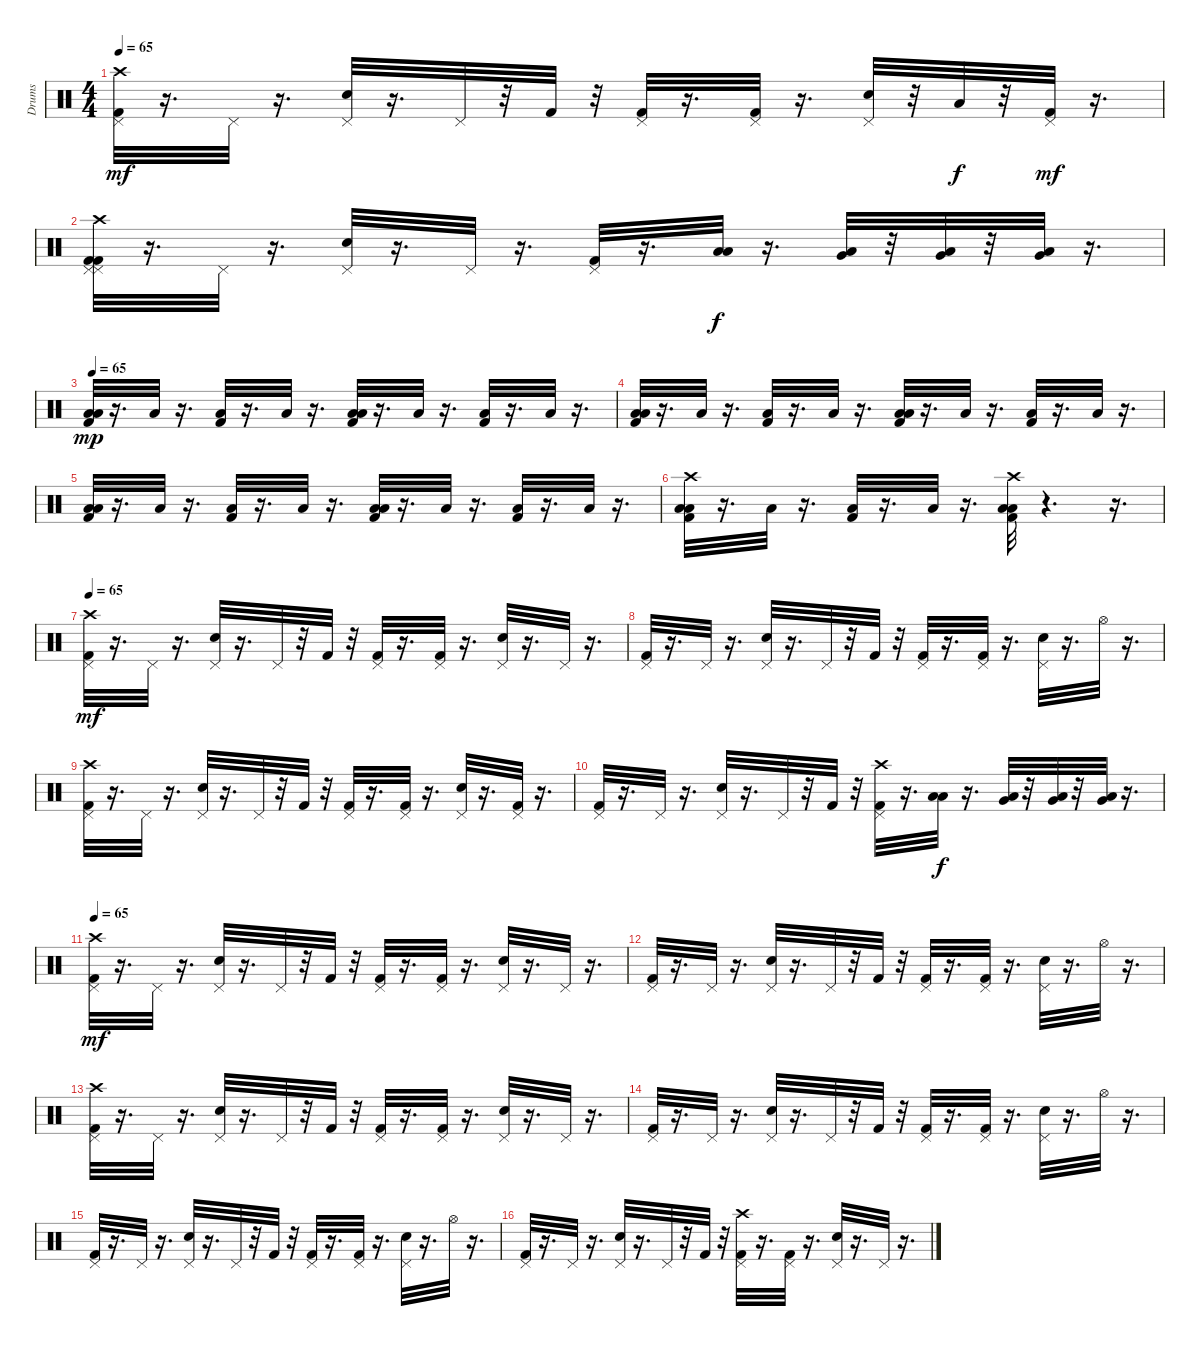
\track ("Drums" "Drums") {instrument percussion}
\staff {score}
\articulation defaults
\ts (4 4)
\tempo 65
\clef neutral
\ks c
("Crash high (hit)" "Pedal Hi-Hat (hit)" "Kick (hit) 2").32{dy mf} r.16{d} "Pedal Hi-Hat (hit)".32 r.16{d} ("Snare (hit) 2" "Pedal Hi-Hat (hit)").32 r.16{d} "Pedal Hi-Hat (hit)".32 r.32 "Kick (hit) 2".32 r.32 ("Pedal Hi-Hat (hit)" "Kick (hit) 2").32 r.16{d} ("Pedal Hi-Hat (hit)" "Kick (hit) 2").32 r.16{d} ("Pedal Hi-Hat (hit)" "Snare (hit) 2").32 r.32 "Low Tom (hit)".32{dy f} r.32 ("Kick (hit) 2" "Pedal Hi-Hat (hit)").32{dy mf} r.16{d} |
("Crash high (hit)" "Pedal Hi-Hat (hit)" "Kick (hit) 2" "Pedal Hi-Hat (hit)" "Kick (hit) 2").32 r.16{d} "Pedal Hi-Hat (hit)".32 r.16{d} ("Snare (hit) 2" "Pedal Hi-Hat (hit)").32 r.16{d} "Pedal Hi-Hat (hit)".32 r.16{d} ("Pedal Hi-Hat (hit)" "Kick (hit) 2").32 r.16{d} ("Low Tom (hit)" "Low Floor Tom (hit)").32{dy f} r.16{d} ("Very Low Tom (hit)" "Low Floor Tom (hit)").32 r.32 ("Very Low Tom (hit)" "Low Floor Tom (hit)").32 r.32 ("Very Low Tom (hit)" "Low Floor Tom (hit)").32 r.16{d} |
\tempo 65
("Kick (hit) 2" "Low Tom (hit)" "Low Floor Tom (hit)").32{dy mp} r.16{d} "Low Tom (hit)".32 r.16{d} ("Kick (hit) 2" "Low Tom (hit)").32 r.16{d} "Low Tom (hit)".32 r.16{d} ("Kick (hit) 2" "Low Tom (hit)" "Low Floor Tom (hit)").32 r.16{d} "Low Tom (hit)".32 r.16{d} ("Kick (hit) 2" "Low Tom (hit)").32 r.16{d} "Low Tom (hit)".32 r.16{d} |
("Kick (hit) 2" "Low Tom (hit)" "Low Floor Tom (hit)").32 r.16{d} "Low Tom (hit)".32 r.16{d} ("Kick (hit) 2" "Low Tom (hit)").32 r.16{d} "Low Tom (hit)".32 r.16{d} ("Kick (hit) 2" "Low Tom (hit)" "Low Floor Tom (hit)").32 r.16{d} "Low Tom (hit)".32 r.16{d} ("Kick (hit) 2" "Low Tom (hit)").32 r.16{d} "Low Tom (hit)".32 r.16{d} |
("Kick (hit) 2" "Low Tom (hit)" "Low Floor Tom (hit)").32 r.16{d} "Low Tom (hit)".32 r.16{d} ("Kick (hit) 2" "Low Tom (hit)").32 r.16{d} "Low Tom (hit)".32 r.16{d} ("Kick (hit) 2" "Low Tom (hit)" "Low Floor Tom (hit)").32 r.16{d} "Low Tom (hit)".32 r.16{d} ("Kick (hit) 2" "Low Tom (hit)").32 r.16{d} "Low Tom (hit)".32 r.16{d} |
("Crash high (hit)" "Kick (hit) 2" "Low Tom (hit)" "Low Floor Tom (hit)").32 r.16{d} "Low Tom (hit)".32 r.16{d} ("Kick (hit) 2" "Low Tom (hit)").32 r.16{d} "Low Tom (hit)".32 r.16{d} ("Crash high (hit)" "Kick (hit) 2" "Low Tom (hit)" "Low Floor Tom (hit)").32 r.4{d} r.16{d} |
\tempo 65
("Crash high (hit)" "Pedal Hi-Hat (hit)" "Kick (hit) 2").32{dy mf} r.16{d} "Pedal Hi-Hat (hit)".32 r.16{d} ("Snare (hit) 2" "Pedal Hi-Hat (hit)").32 r.16{d} "Pedal Hi-Hat (hit)".32 r.32 "Kick (hit) 2".32 r.32 ("Pedal Hi-Hat (hit)" "Kick (hit) 2").32 r.16{d} ("Pedal Hi-Hat (hit)" "Kick (hit) 2").32 r.16{d} ("Pedal Hi-Hat (hit)" "Snare (hit) 2").32 r.16{d} "Pedal Hi-Hat (hit)".32 r.16{d} |
("Pedal Hi-Hat (hit)" "Kick (hit) 2").32 r.16{d} "Pedal Hi-Hat (hit)".32 r.16{d} ("Snare (hit) 2" "Pedal Hi-Hat (hit)").32 r.16{d} "Pedal Hi-Hat (hit)".32 r.32 "Kick (hit) 2".32 r.32 ("Pedal Hi-Hat (hit)" "Kick (hit) 2").32 r.16{d} ("Pedal Hi-Hat (hit)" "Kick (hit) 2").32 r.16{d} ("Pedal Hi-Hat (hit)" "Snare (hit) 2").32 r.16{d} "Hi-Hat (open)".32 r.16{d} |
("Crash high (hit)" "Pedal Hi-Hat (hit)" "Kick (hit) 2").32 r.16{d} "Pedal Hi-Hat (hit)".32 r.16{d} ("Snare (hit) 2" "Pedal Hi-Hat (hit)").32 r.16{d} "Pedal Hi-Hat (hit)".32 r.32 "Kick (hit) 2".32 r.32 ("Pedal Hi-Hat (hit)" "Kick (hit) 2").32 r.16{d} ("Pedal Hi-Hat (hit)" "Kick (hit) 2").32 r.16{d} ("Pedal Hi-Hat (hit)" "Snare (hit) 2").32 r.16{d} ("Kick (hit) 2" "Pedal Hi-Hat (hit)").32 r.16{d} |
("Pedal Hi-Hat (hit)" "Kick (hit) 2").32 r.16{d} "Pedal Hi-Hat (hit)".32 r.16{d} ("Snare (hit) 2" "Pedal Hi-Hat (hit)").32 r.16{d} "Pedal Hi-Hat (hit)".32 r.32 "Kick (hit) 2".32 r.32 ("Crash high (hit)" "Pedal Hi-Hat (hit)" "Kick (hit) 2").32 r.16{d} ("Low Tom (hit)" "Low Floor Tom (hit)").32{dy f} r.16{d} ("Very Low Tom (hit)" "Low Floor Tom (hit)").32 r.32 ("Very Low Tom (hit)" "Low Floor Tom (hit)").32 r.32 ("Very Low Tom (hit)" "Low Floor Tom (hit)").32 r.16{d} |
\tempo 65
("Crash high (hit)" "Pedal Hi-Hat (hit)" "Kick (hit) 2").32{dy mf} r.16{d} "Pedal Hi-Hat (hit)".32 r.16{d} ("Snare (hit) 2" "Pedal Hi-Hat (hit)").32 r.16{d} "Pedal Hi-Hat (hit)".32 r.32 "Kick (hit) 2".32 r.32 ("Pedal Hi-Hat (hit)" "Kick (hit) 2").32 r.16{d} ("Pedal Hi-Hat (hit)" "Kick (hit) 2").32 r.16{d} ("Pedal Hi-Hat (hit)" "Snare (hit) 2").32 r.16{d} "Pedal Hi-Hat (hit)".32 r.16{d} |
("Pedal Hi-Hat (hit)" "Kick (hit) 2").32 r.16{d} "Pedal Hi-Hat (hit)".32 r.16{d} ("Snare (hit) 2" "Pedal Hi-Hat (hit)").32 r.16{d} "Pedal Hi-Hat (hit)".32 r.32 "Kick (hit) 2".32 r.32 ("Pedal Hi-Hat (hit)" "Kick (hit) 2").32 r.16{d} ("Pedal Hi-Hat (hit)" "Kick (hit) 2").32 r.16{d} ("Pedal Hi-Hat (hit)" "Snare (hit) 2").32 r.16{d} "Hi-Hat (open)".32 r.16{d} |
("Crash high (hit)" "Pedal Hi-Hat (hit)" "Kick (hit) 2").32 r.16{d} "Pedal Hi-Hat (hit)".32 r.16{d} ("Snare (hit) 2" "Pedal Hi-Hat (hit)").32 r.16{d} "Pedal Hi-Hat (hit)".32 r.32 "Kick (hit) 2".32 r.32 ("Pedal Hi-Hat (hit)" "Kick (hit) 2").32 r.16{d} ("Pedal Hi-Hat (hit)" "Kick (hit) 2").32 r.16{d} ("Pedal Hi-Hat (hit)" "Snare (hit) 2").32 r.16{d} "Pedal Hi-Hat (hit)".32 r.16{d} |
("Pedal Hi-Hat (hit)" "Kick (hit) 2").32 r.16{d} "Pedal Hi-Hat (hit)".32 r.16{d} ("Snare (hit) 2" "Pedal Hi-Hat (hit)").32 r.16{d} "Pedal Hi-Hat (hit)".32 r.32 "Kick (hit) 2".32 r.32 ("Pedal Hi-Hat (hit)" "Kick (hit) 2").32 r.16{d} ("Pedal Hi-Hat (hit)" "Kick (hit) 2").32 r.16{d} ("Pedal Hi-Hat (hit)" "Snare (hit) 2").32 r.16{d} "Hi-Hat (open)".32 r.16{d} |
("Pedal Hi-Hat (hit)" "Kick (hit) 2").32 r.16{d} "Pedal Hi-Hat (hit)".32 r.16{d} ("Snare (hit) 2" "Pedal Hi-Hat (hit)").32 r.16{d} "Pedal Hi-Hat (hit)".32 r.32 "Kick (hit) 2".32 r.32 ("Pedal Hi-Hat (hit)" "Kick (hit) 2").32 r.16{d} ("Pedal Hi-Hat (hit)" "Kick (hit) 2").32 r.16{d} ("Pedal Hi-Hat (hit)" "Snare (hit) 2").32 r.16{d} "Hi-Hat (open)".32 r.16{d} |
("Pedal Hi-Hat (hit)" "Kick (hit) 2").32 r.16{d} "Pedal Hi-Hat (hit)".32 r.16{d} ("Snare (hit) 2" "Pedal Hi-Hat (hit)").32 r.16{d} "Pedal Hi-Hat (hit)".32 r.32 "Kick (hit) 2".32 r.32 ("Crash high (hit)" "Pedal Hi-Hat (hit)" "Kick (hit) 2").32 r.16{d} ("Pedal Hi-Hat (hit)" "Kick (hit) 2").32 r.16{d} ("Pedal Hi-Hat (hit)" "Snare (hit) 2").32 r.16{d} "Pedal Hi-Hat (hit)".32 r.16{d}
